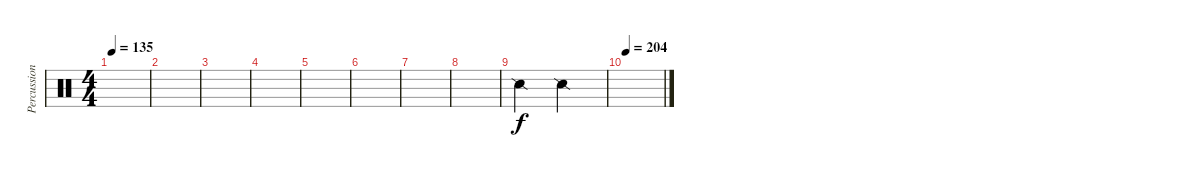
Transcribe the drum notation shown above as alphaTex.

\track ("Percussion" "Percussion") {instrument percussion}
\staff {score}
\articulation defaults
\ts (4 4)
\tempo 135
\clef neutral
\ks c
|
|
|
|
|
|
|
|
"Snare (side stick) 2".2 "Snare (side stick) 2".2 |
\tempo 204
